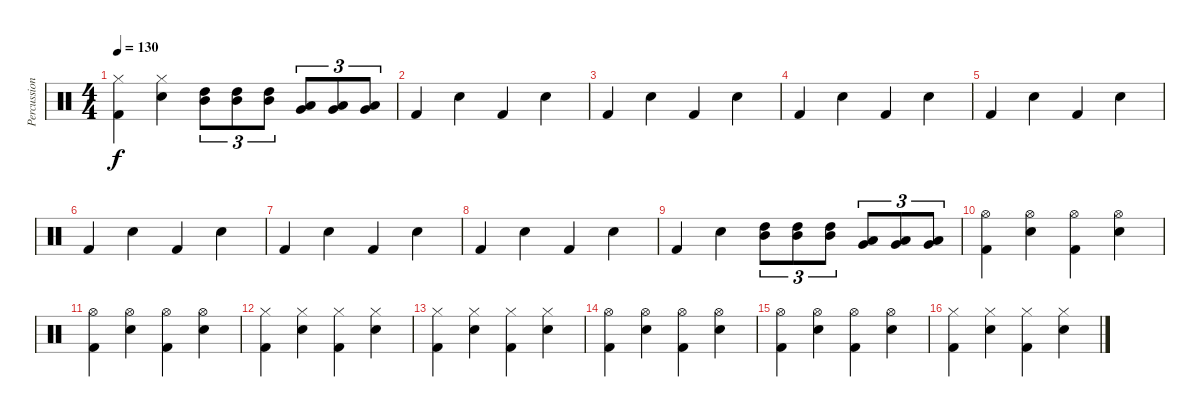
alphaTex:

\track ("Percussion" "Percussion") {instrument percussion bank 177}
\staff {score}
\articulation defaults
\ts (4 4)
\tempo 130
\clef neutral
\ks c
("Hi-Hat (closed)" "Kick (hit) 2").4{dy f} ("Hi-Hat (closed)" "Snare (hit) 2").4 ("High Tom (hit)" "Mid Tom (hit)").8{tu (3 2)} ("High Tom (hit)" "Mid Tom (hit)").8{tu (3 2)} ("High Tom (hit)" "Mid Tom (hit)").8{tu (3 2)} ("Low Tom (hit)" "Very Low Tom (hit)").8{tu (3 2)} ("Low Tom (hit)" "Very Low Tom (hit)").8{tu (3 2)} ("Low Tom (hit)" "Very Low Tom (hit)").8{tu (3 2)} |
"Kick (hit) 2".4 "Snare (hit) 2".4 "Kick (hit) 2".4 "Snare (hit) 2".4 |
"Kick (hit) 2".4 "Snare (hit) 2".4 "Kick (hit) 2".4 "Snare (hit) 2".4 |
"Kick (hit) 2".4 "Snare (hit) 2".4 "Kick (hit) 2".4 "Snare (hit) 2".4 |
"Kick (hit) 2".4 "Snare (hit) 2".4 "Kick (hit) 2".4 "Snare (hit) 2".4 |
"Kick (hit) 2".4 "Snare (hit) 2".4 "Kick (hit) 2".4 "Snare (hit) 2".4 |
"Kick (hit) 2".4 "Snare (hit) 2".4 "Kick (hit) 2".4 "Snare (hit) 2".4 |
"Kick (hit) 2".4 "Snare (hit) 2".4 "Kick (hit) 2".4 "Snare (hit) 2".4 |
"Kick (hit) 2".4 "Snare (hit) 2".4 ("High Tom (hit)" "Mid Tom (hit)").8{tu (3 2)} ("High Tom (hit)" "Mid Tom (hit)").8{tu (3 2)} ("High Tom (hit)" "Mid Tom (hit)").8{tu (3 2)} ("Low Tom (hit)" "Very Low Tom (hit)").8{tu (3 2)} ("Low Tom (hit)" "Very Low Tom (hit)").8{tu (3 2)} ("Low Tom (hit)" "Very Low Tom (hit)").8{tu (3 2)} |
("Hi-Hat (open)" "Kick (hit) 2").4 ("Hi-Hat (open)" "Snare (hit) 2").4 ("Hi-Hat (open)" "Kick (hit) 2").4 ("Hi-Hat (open)" "Snare (hit) 2").4 |
("Hi-Hat (open)" "Kick (hit) 2").4 ("Hi-Hat (open)" "Snare (hit) 2").4 ("Hi-Hat (open)" "Kick (hit) 2").4 ("Hi-Hat (open)" "Snare (hit) 2").4 |
("Hi-Hat (closed)" "Kick (hit) 2").4 ("Hi-Hat (closed)" "Snare (hit) 2").4 ("Hi-Hat (closed)" "Kick (hit) 2").4 ("Hi-Hat (closed)" "Snare (hit) 2").4 |
("Hi-Hat (closed)" "Kick (hit) 2").4 ("Hi-Hat (closed)" "Snare (hit) 2").4 ("Hi-Hat (closed)" "Kick (hit) 2").4 ("Hi-Hat (closed)" "Snare (hit) 2").4 |
("Hi-Hat (open)" "Kick (hit) 2").4 ("Hi-Hat (open)" "Snare (hit) 2").4 ("Hi-Hat (open)" "Kick (hit) 2").4 ("Hi-Hat (open)" "Snare (hit) 2").4 |
("Hi-Hat (open)" "Kick (hit) 2").4 ("Hi-Hat (open)" "Snare (hit) 2").4 ("Hi-Hat (open)" "Kick (hit) 2").4 ("Hi-Hat (open)" "Snare (hit) 2").4 |
("Hi-Hat (closed)" "Kick (hit) 2").4 ("Hi-Hat (closed)" "Snare (hit) 2").4 ("Hi-Hat (closed)" "Kick (hit) 2").4 ("Hi-Hat (closed)" "Snare (hit) 2").4
